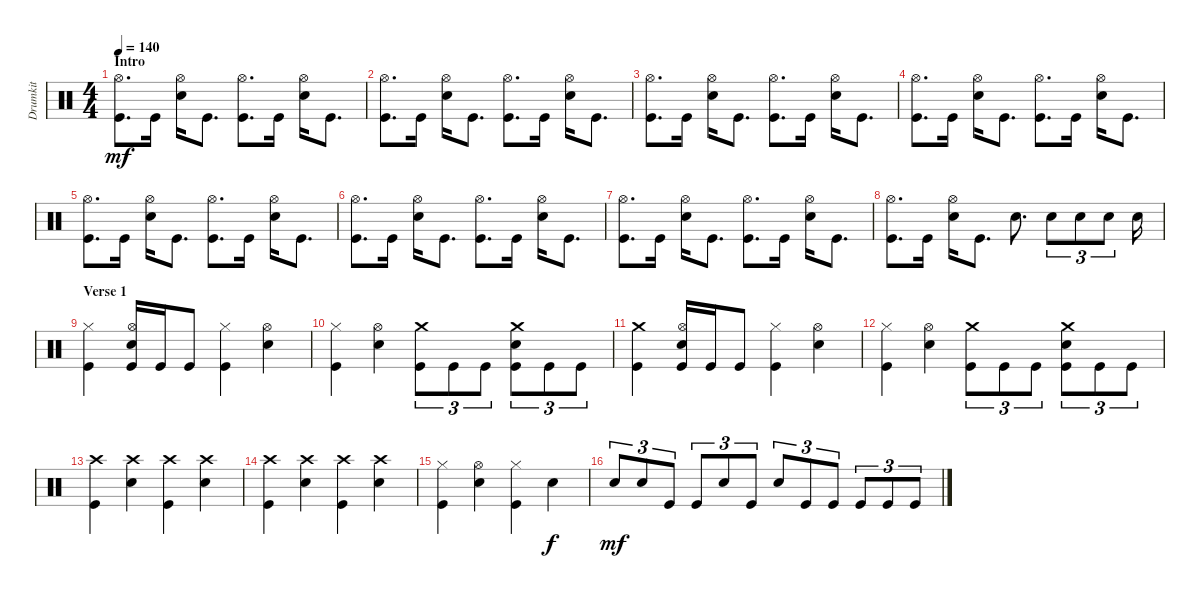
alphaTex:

\track ("Drumkit" "Drumkit") {instrument percussion}
\staff {score}
\articulation defaults
\ts (4 4)
\section ("" "Intro")
\tempo 140
\clef neutral
\ks c
("Kick (hit)" "Hi-Hat (open)").8{d dy mf} "Kick (hit)".16 ("Snare (hit) 2" "Hi-Hat (open)").16 "Kick (hit)".8{d} ("Kick (hit)" "Hi-Hat (open)").8{d} "Kick (hit)".16 ("Snare (hit) 2" "Hi-Hat (open)").16 "Kick (hit)".8{d} |
("Kick (hit)" "Hi-Hat (open)").8{d} "Kick (hit)".16 ("Snare (hit) 2" "Hi-Hat (open)").16 "Kick (hit)".8{d} ("Kick (hit)" "Hi-Hat (open)").8{d} "Kick (hit)".16 ("Snare (hit) 2" "Hi-Hat (open)").16 "Kick (hit)".8{d} |
("Kick (hit)" "Hi-Hat (open)").8{d} "Kick (hit)".16 ("Snare (hit) 2" "Hi-Hat (open)").16 "Kick (hit)".8{d} ("Kick (hit)" "Hi-Hat (open)").8{d} "Kick (hit)".16 ("Snare (hit) 2" "Hi-Hat (open)").16 "Kick (hit)".8{d} |
("Kick (hit)" "Hi-Hat (open)").8{d} "Kick (hit)".16 ("Snare (hit) 2" "Hi-Hat (open)").16 "Kick (hit)".8{d} ("Kick (hit)" "Hi-Hat (open)").8{d} "Kick (hit)".16 ("Snare (hit) 2" "Hi-Hat (open)").16 "Kick (hit)".8{d} |
("Kick (hit)" "Hi-Hat (open)").8{d} "Kick (hit)".16 ("Snare (hit) 2" "Hi-Hat (open)").16 "Kick (hit)".8{d} ("Kick (hit)" "Hi-Hat (open)").8{d} "Kick (hit)".16 ("Snare (hit) 2" "Hi-Hat (open)").16 "Kick (hit)".8{d} |
("Kick (hit)" "Hi-Hat (open)").8{d} "Kick (hit)".16 ("Snare (hit) 2" "Hi-Hat (open)").16 "Kick (hit)".8{d} ("Kick (hit)" "Hi-Hat (open)").8{d} "Kick (hit)".16 ("Snare (hit) 2" "Hi-Hat (open)").16 "Kick (hit)".8{d} |
("Kick (hit)" "Hi-Hat (open)").8{d} "Kick (hit)".16 ("Snare (hit) 2" "Hi-Hat (open)").16 "Kick (hit)".8{d} ("Kick (hit)" "Hi-Hat (open)").8{d} "Kick (hit)".16 ("Snare (hit) 2" "Hi-Hat (open)").16 "Kick (hit)".8{d} |
("Kick (hit)" "Hi-Hat (open)").8{d} "Kick (hit)".16 ("Snare (hit) 2" "Hi-Hat (open)").16 "Kick (hit)".8{d} "Snare (hit) 2".8{d} "Snare (hit) 2".8{tu (3 2)} "Snare (hit) 2".8{tu (3 2)} "Snare (hit) 2".8{tu (3 2)} "Snare (hit) 2".16 |
\section ("" "Verse 1")
("Kick (hit)" "Hi-Hat (closed)").4 ("Snare (hit) 2" "Kick (hit)" "Hi-Hat (open)").16 "Kick (hit)".16 "Kick (hit)".8 ("Kick (hit)" "Hi-Hat (closed)").4 ("Snare (hit) 2" "Hi-Hat (open)").4 |
("Kick (hit)" "Hi-Hat (closed)").4 ("Snare (hit) 2" "Hi-Hat (open)").4 ("Kick (hit)" "Crash medium (hit)").8{tu (3 2)} "Kick (hit)".8{tu (3 2)} "Kick (hit)".8{tu (3 2)} ("Kick (hit)" "Snare (hit) 2" "Crash medium (hit)").8{tu (3 2)} "Kick (hit)".8{tu (3 2)} "Kick (hit)".8{tu (3 2)} |
("Kick (hit)" "Crash medium (hit)").4 ("Snare (hit) 2" "Kick (hit)" "Hi-Hat (open)").16 "Kick (hit)".16 "Kick (hit)".8 ("Kick (hit)" "Hi-Hat (closed)").4 ("Snare (hit) 2" "Hi-Hat (open)").4 |
("Kick (hit)" "Hi-Hat (closed)").4 ("Snare (hit) 2" "Hi-Hat (open)").4 ("Kick (hit)" "Crash medium (hit)").8{tu (3 2)} "Kick (hit)".8{tu (3 2)} "Kick (hit)".8{tu (3 2)} ("Kick (hit)" "Snare (hit) 2" "Crash medium (hit)").8{tu (3 2)} "Kick (hit)".8{tu (3 2)} "Kick (hit)".8{tu (3 2)} |
("Kick (hit)" "Crash high (hit)").4 ("Snare (hit) 2" "Crash high (hit)").4 ("Kick (hit)" "Crash high (hit)").4 ("Snare (hit) 2" "Crash high (hit)").4 |
("Kick (hit)" "Crash high (hit)").4 ("Snare (hit) 2" "Crash high (hit)").4 ("Kick (hit)" "Crash high (hit)").4 ("Snare (hit) 2" "Crash high (hit)").4 |
("Kick (hit)" "Hi-Hat (closed)").4 ("Snare (hit) 2" "Hi-Hat (open)").4 ("Kick (hit)" "Hi-Hat (closed)").4 "Snare (hit) 2".4{dy f} |
"Snare (hit) 2".8{tu (3 2) dy mf} "Snare (hit) 2".8{tu (3 2)} "Kick (hit)".8{tu (3 2)} "Kick (hit)".8{tu (3 2)} "Snare (hit) 2".8{tu (3 2)} "Kick (hit)".8{tu (3 2)} "Snare (hit) 2".8{tu (3 2)} "Kick (hit)".8{tu (3 2)} "Kick (hit)".8{tu (3 2)} "Kick (hit)".8{tu (3 2)} "Kick (hit)".8{tu (3 2)} "Kick (hit)".8{tu (3 2)}
